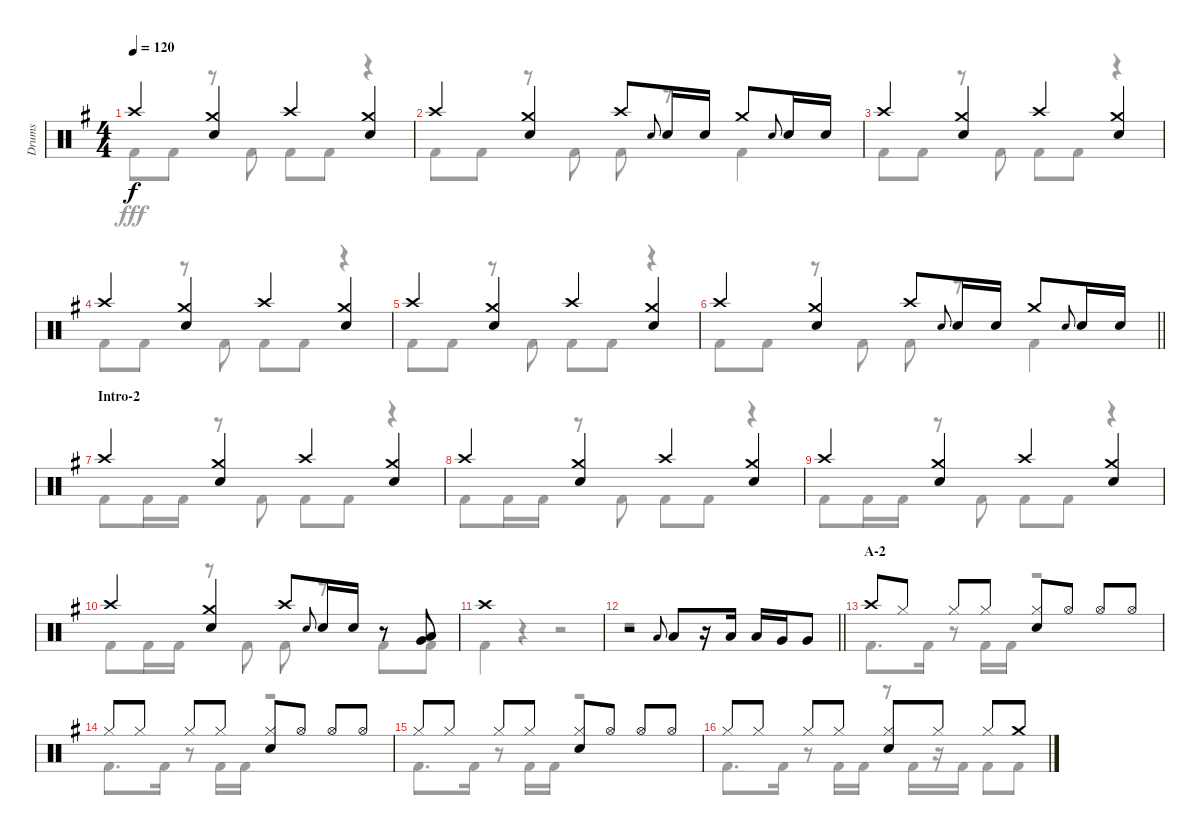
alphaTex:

\track ("Drums" "Drums") {instrument percussion}
\staff {score}
\articulation defaults
\voice
\ts (4 4)
\tempo 120
\clef neutral
\ks eminor "Crash high (hit)".4{dy f}
("Crash medium (hit)" "Snare (hit) 2").4 "Crash high (hit)".4 ("Crash medium (hit)" "Snare (hit) 2").4 |
"Crash high (hit)".4 ("Crash medium (hit)" "Snare (hit) 2").4 "Crash high (hit)".8 "Snare (hit) 2".8{gr onbeat} "Snare (hit) 2".16 "Snare (hit) 2".16 "Crash medium (hit)".8 "Snare (hit) 2".8{gr onbeat} "Snare (hit) 2".16 "Snare (hit) 2".16 |
"Crash high (hit)".4 ("Crash medium (hit)" "Snare (hit) 2").4 "Crash high (hit)".4 ("Crash medium (hit)" "Snare (hit) 2").4 |
"Crash high (hit)".4 ("Crash medium (hit)" "Snare (hit) 2").4 "Crash high (hit)".4 ("Crash medium (hit)" "Snare (hit) 2").4 |
"Crash high (hit)".4 ("Crash medium (hit)" "Snare (hit) 2").4 "Crash high (hit)".4 ("Crash medium (hit)" "Snare (hit) 2").4 |
\barLineRight lightlight "Crash high (hit)".4
("Crash medium (hit)" "Snare (hit) 2").4 "Crash high (hit)".8 "Snare (hit) 2".8{gr onbeat} "Snare (hit) 2".16 "Snare (hit) 2".16 "Crash medium (hit)".8 "Snare (hit) 2".8{gr onbeat} "Snare (hit) 2".16 "Snare (hit) 2".16 |
\section ("" "Intro-2")
"Crash high (hit)".4 ("Crash medium (hit)" "Snare (hit) 2").4 "Crash high (hit)".4 ("Crash medium (hit)" "Snare (hit) 2").4 |
"Crash high (hit)".4 ("Crash medium (hit)" "Snare (hit) 2").4 "Crash high (hit)".4 ("Crash medium (hit)" "Snare (hit) 2").4 |
"Crash high (hit)".4 ("Crash medium (hit)" "Snare (hit) 2").4 "Crash high (hit)".4 ("Crash medium (hit)" "Snare (hit) 2").4 |
"Crash high (hit)".4 ("Crash medium (hit)" "Snare (hit) 2").4 "Crash high (hit)".8 "Snare (hit) 2".8{gr onbeat} "Snare (hit) 2".16 "Snare (hit) 2".16 r.8 ("Low Tom (hit)" "Very Low Tom (hit)").8 |
"Crash high (hit)".1 |
\barLineRight lightlight
r.2 "Low Tom (hit)".8{gr onbeat} "Low Tom (hit)".8 r.16 "Low Tom (hit)".16 "Low Tom (hit)".16 "Very Low Tom (hit)".16 "Very Low Tom (hit)".8 |
\section ("" "A-2")
\ks g "Crash high (hit)".8 "Hi-Hat (closed)".8 "Hi-Hat (closed)".8 "Hi-Hat (closed)".8
("Hi-Hat (closed)" "Snare (hit) 2").8 "Hi-Hat (open)".8 "Hi-Hat (open)".8 "Hi-Hat (open)".8 |
"Hi-Hat (closed)".8 "Hi-Hat (closed)".8 "Hi-Hat (closed)".8 "Hi-Hat (closed)".8 ("Hi-Hat (closed)" "Snare (hit) 2").8 "Hi-Hat (open)".8 "Hi-Hat (open)".8 "Hi-Hat (open)".8 |
"Hi-Hat (closed)".8 "Hi-Hat (closed)".8 "Hi-Hat (closed)".8 "Hi-Hat (closed)".8 ("Hi-Hat (closed)" "Snare (hit) 2").8 "Hi-Hat (open)".8 "Hi-Hat (open)".8 "Hi-Hat (open)".8 |
"Hi-Hat (closed)".8 "Hi-Hat (closed)".8 "Hi-Hat (closed)".8 "Hi-Hat (closed)".8 ("Hi-Hat (closed)" "Snare (hit) 2").8 "Hi-Hat (closed)".8 "Hi-Hat (closed)".8 "Crash medium (hit)".8
\voice
\clef neutral
\ottava regular
\simile none
\ks eminor "Kick (hit) 2".8{dy fff} "Kick (hit) 2".8
r.8 "Kick (hit) 2".8 "Kick (hit) 2".8 "Kick (hit) 2".8 r.4 |
"Kick (hit) 2".8 "Kick (hit) 2".8 r.8 "Kick (hit) 2".8 "Kick (hit) 2".8 r.8 "Kick (hit) 2".4 |
"Kick (hit) 2".8 "Kick (hit) 2".8 r.8 "Kick (hit) 2".8 "Kick (hit) 2".8 "Kick (hit) 2".8 r.4 |
"Kick (hit) 2".8 "Kick (hit) 2".8 r.8 "Kick (hit) 2".8 "Kick (hit) 2".8 "Kick (hit) 2".8 r.4 |
"Kick (hit) 2".8 "Kick (hit) 2".8 r.8 "Kick (hit) 2".8 "Kick (hit) 2".8 "Kick (hit) 2".8 r.4 |
\barLineRight lightlight "Kick (hit) 2".8 "Kick (hit) 2".8
r.8 "Kick (hit) 2".8 "Kick (hit) 2".8 r.8 "Kick (hit) 2".4 |
"Kick (hit) 2".8 "Kick (hit) 2".16 "Kick (hit) 2".16 r.8 "Kick (hit) 2".8 "Kick (hit) 2".8 "Kick (hit) 2".8 r.4 |
"Kick (hit) 2".8 "Kick (hit) 2".16 "Kick (hit) 2".16 r.8 "Kick (hit) 2".8 "Kick (hit) 2".8 "Kick (hit) 2".8 r.4 |
"Kick (hit) 2".8 "Kick (hit) 2".16 "Kick (hit) 2".16 r.8 "Kick (hit) 2".8 "Kick (hit) 2".8 "Kick (hit) 2".8 r.4 |
"Kick (hit) 2".8 "Kick (hit) 2".16 "Kick (hit) 2".16 r.8 "Kick (hit) 2".8 "Kick (hit) 2".8 r.8 "Kick (hit) 2".8 "Kick (hit) 2".8 |
"Kick (hit) 2".4 r.4 r.2 |
\barLineRight lightlight
r.1 |
\ks g "Kick (hit) 2".8{d} "Kick (hit) 2".16
r.8 "Kick (hit) 2".16 "Kick (hit) 2".16 r.2 |
"Kick (hit) 2".8{d} "Kick (hit) 2".16 r.8 "Kick (hit) 2".16 "Kick (hit) 2".16 r.2 |
"Kick (hit) 2".8{d} "Kick (hit) 2".16 r.8 "Kick (hit) 2".16 "Kick (hit) 2".16 r.2 |
"Kick (hit) 2".8{d} "Kick (hit) 2".16 r.8 "Kick (hit) 2".16 "Kick (hit) 2".16 r.16 "Kick (hit) 2".16 r.16 "Kick (hit) 2".16 "Kick (hit) 2".8 "Kick (hit) 2".8
